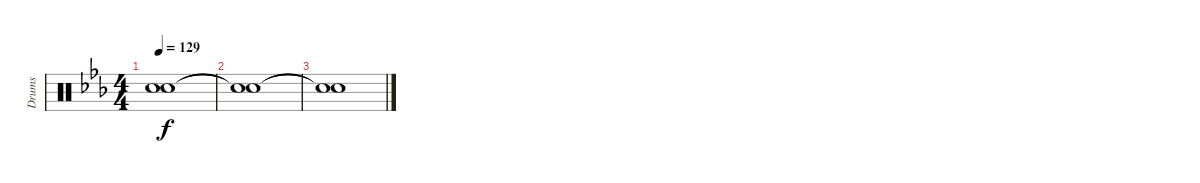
\track ("Drums" "Drums") {instrument percussion}
\staff {score}
\articulation defaults
\ts (4 4)
\tempo 129
\clef neutral
\ks eb
("Snare (hit)"{t} "Snare (hit)"{t}).1{dy f} |
("Snare (hit)"{t} "Snare (hit)"{t}).1 |
("Snare (hit)"{t} "Snare (hit)"{t}).1
